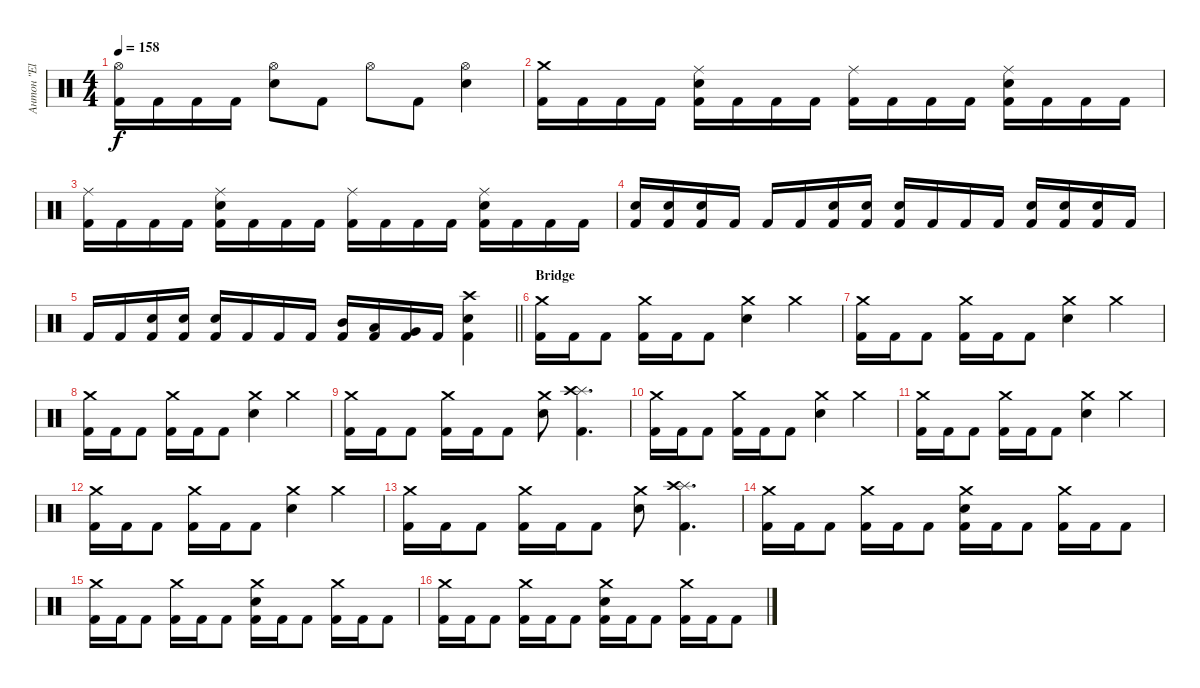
\track ("Антон \"El Bastardo\" Смольянин" "Антон \"El ") {instrument percussion}
\staff {score}
\articulation defaults
\ts (4 4)
\tempo 158
\clef neutral
\ks c
("Hi-Hat (open)" "Kick (hit) 2").16{dy f} "Kick (hit) 2".16 "Kick (hit) 2".16 "Kick (hit) 2".16 ("Hi-Hat (open)" "Electric Snare (hit)").8 "Kick (hit) 2".8 "Hi-Hat (open)".8 "Kick (hit) 2".8 ("Hi-Hat (open)" "Electric Snare (hit)").4 |
("Crash medium (hit)" "Kick (hit) 2").16 "Kick (hit) 2".16 "Kick (hit) 2".16 "Kick (hit) 2".16 ("Ride (middle)" "Electric Snare (hit)" "Kick (hit) 2").16 "Kick (hit) 2".16 "Kick (hit) 2".16 "Kick (hit) 2".16 ("Ride (middle)" "Kick (hit) 2").16 "Kick (hit) 2".16 "Kick (hit) 2".16 "Kick (hit) 2".16 ("Ride (middle)" "Electric Snare (hit)" "Kick (hit) 2").16 "Kick (hit) 2".16 "Kick (hit) 2".16 "Kick (hit) 2".16 |
("Ride (middle)" "Kick (hit) 2").16 "Kick (hit) 2".16 "Kick (hit) 2".16 "Kick (hit) 2".16 ("Ride (middle)" "Electric Snare (hit)" "Kick (hit) 2").16 "Kick (hit) 2".16 "Kick (hit) 2".16 "Kick (hit) 2".16 ("Ride (middle)" "Kick (hit) 2").16 "Kick (hit) 2".16 "Kick (hit) 2".16 "Kick (hit) 2".16 ("Ride (middle)" "Electric Snare (hit)" "Kick (hit) 2").16 "Kick (hit) 2".16 "Kick (hit) 2".16 "Kick (hit) 2".16 |
("Electric Snare (hit)" "Kick (hit) 2").16 ("Electric Snare (hit)" "Kick (hit) 2").16 ("Electric Snare (hit)" "Kick (hit) 2").16 "Kick (hit) 2".16 "Kick (hit) 2".16 "Kick (hit) 2".16 ("Electric Snare (hit)" "Kick (hit) 2").16 ("Electric Snare (hit)" "Kick (hit) 2").16 ("Electric Snare (hit)" "Kick (hit) 2").16 "Kick (hit) 2".16 "Kick (hit) 2".16 "Kick (hit) 2".16 ("Electric Snare (hit)" "Kick (hit) 2").16 ("Electric Snare (hit)" "Kick (hit) 2").16 ("Electric Snare (hit)" "Kick (hit) 2").16 "Kick (hit) 2".16 |
\barLineRight lightlight "Kick (hit) 2".16 "Kick (hit) 2".16
("Electric Snare (hit)" "Kick (hit) 2").16 ("Electric Snare (hit)" "Kick (hit) 2").16 ("Electric Snare (hit)" "Kick (hit) 2").16 "Kick (hit) 2".16 "Kick (hit) 2".16 "Kick (hit) 2".16 ("Mid Tom (hit)" "Kick (hit) 2").16 ("Low Tom (hit)" "Kick (hit) 2").16 ("Very Low Tom (hit)" "Kick (hit) 2").16 "Kick (hit) 2".16 ("Crash high (hit)" "Electric Snare (hit)" "Kick (hit) 2").4 |
\section ("" "Bridge")
("Crash medium (hit)" "Kick (hit) 2").16 "Kick (hit) 2".16 "Kick (hit) 2".8 ("Crash medium (hit)" "Kick (hit) 2").16 "Kick (hit) 2".16 "Kick (hit) 2".8 ("Crash medium (hit)" "Electric Snare (hit)").4 "Crash medium (hit)".4 |
("Crash medium (hit)" "Kick (hit) 2").16 "Kick (hit) 2".16 "Kick (hit) 2".8 ("Crash medium (hit)" "Kick (hit) 2").16 "Kick (hit) 2".16 "Kick (hit) 2".8 ("Crash medium (hit)" "Electric Snare (hit)").4 "Crash medium (hit)".4 |
("Crash medium (hit)" "Kick (hit) 2").16 "Kick (hit) 2".16 "Kick (hit) 2".8 ("Crash medium (hit)" "Kick (hit) 2").16 "Kick (hit) 2".16 "Kick (hit) 2".8 ("Crash medium (hit)" "Electric Snare (hit)").4 "Crash medium (hit)".4 |
("Crash medium (hit)" "Kick (hit) 2").16 "Kick (hit) 2".16 "Kick (hit) 2".8 ("Crash medium (hit)" "Kick (hit) 2").16 "Kick (hit) 2".16 "Kick (hit) 2".8 ("Crash medium (hit)" "Electric Snare (hit)").8 ("Splash (hit)" "Crash high (hit)" "Kick (hit) 2").4{d} |
("Crash medium (hit)" "Kick (hit) 2").16 "Kick (hit) 2".16 "Kick (hit) 2".8 ("Crash medium (hit)" "Kick (hit) 2").16 "Kick (hit) 2".16 "Kick (hit) 2".8 ("Crash medium (hit)" "Electric Snare (hit)").4 "Crash medium (hit)".4 |
("Crash medium (hit)" "Kick (hit) 2").16 "Kick (hit) 2".16 "Kick (hit) 2".8 ("Crash medium (hit)" "Kick (hit) 2").16 "Kick (hit) 2".16 "Kick (hit) 2".8 ("Crash medium (hit)" "Electric Snare (hit)").4 "Crash medium (hit)".4 |
("Crash medium (hit)" "Kick (hit) 2").16 "Kick (hit) 2".16 "Kick (hit) 2".8 ("Crash medium (hit)" "Kick (hit) 2").16 "Kick (hit) 2".16 "Kick (hit) 2".8 ("Crash medium (hit)" "Electric Snare (hit)").4 "Crash medium (hit)".4 |
("Crash medium (hit)" "Kick (hit) 2").16 "Kick (hit) 2".16 "Kick (hit) 2".8 ("Crash medium (hit)" "Kick (hit) 2").16 "Kick (hit) 2".16 "Kick (hit) 2".8 ("Crash medium (hit)" "Electric Snare (hit)").8 ("Splash (hit)" "Crash high (hit)" "Kick (hit) 2").4{d} |
("Crash medium (hit)" "Kick (hit) 2").16 "Kick (hit) 2".16 "Kick (hit) 2".8 ("Crash medium (hit)" "Kick (hit) 2").16 "Kick (hit) 2".16 "Kick (hit) 2".8 ("Crash medium (hit)" "Electric Snare (hit)" "Kick (hit) 2").16 "Kick (hit) 2".16 "Kick (hit) 2".8 ("Crash medium (hit)" "Kick (hit) 2").16 "Kick (hit) 2".16 "Kick (hit) 2".8 |
("Crash medium (hit)" "Kick (hit) 2").16 "Kick (hit) 2".16 "Kick (hit) 2".8 ("Crash medium (hit)" "Kick (hit) 2").16 "Kick (hit) 2".16 "Kick (hit) 2".8 ("Crash medium (hit)" "Electric Snare (hit)" "Kick (hit) 2").16 "Kick (hit) 2".16 "Kick (hit) 2".8 ("Crash medium (hit)" "Kick (hit) 2").16 "Kick (hit) 2".16 "Kick (hit) 2".8 |
("Crash medium (hit)" "Kick (hit) 2").16 "Kick (hit) 2".16 "Kick (hit) 2".8 ("Crash medium (hit)" "Kick (hit) 2").16 "Kick (hit) 2".16 "Kick (hit) 2".8 ("Crash medium (hit)" "Electric Snare (hit)" "Kick (hit) 2").16 "Kick (hit) 2".16 "Kick (hit) 2".8 ("Crash medium (hit)" "Kick (hit) 2").16 "Kick (hit) 2".16 "Kick (hit) 2".8
